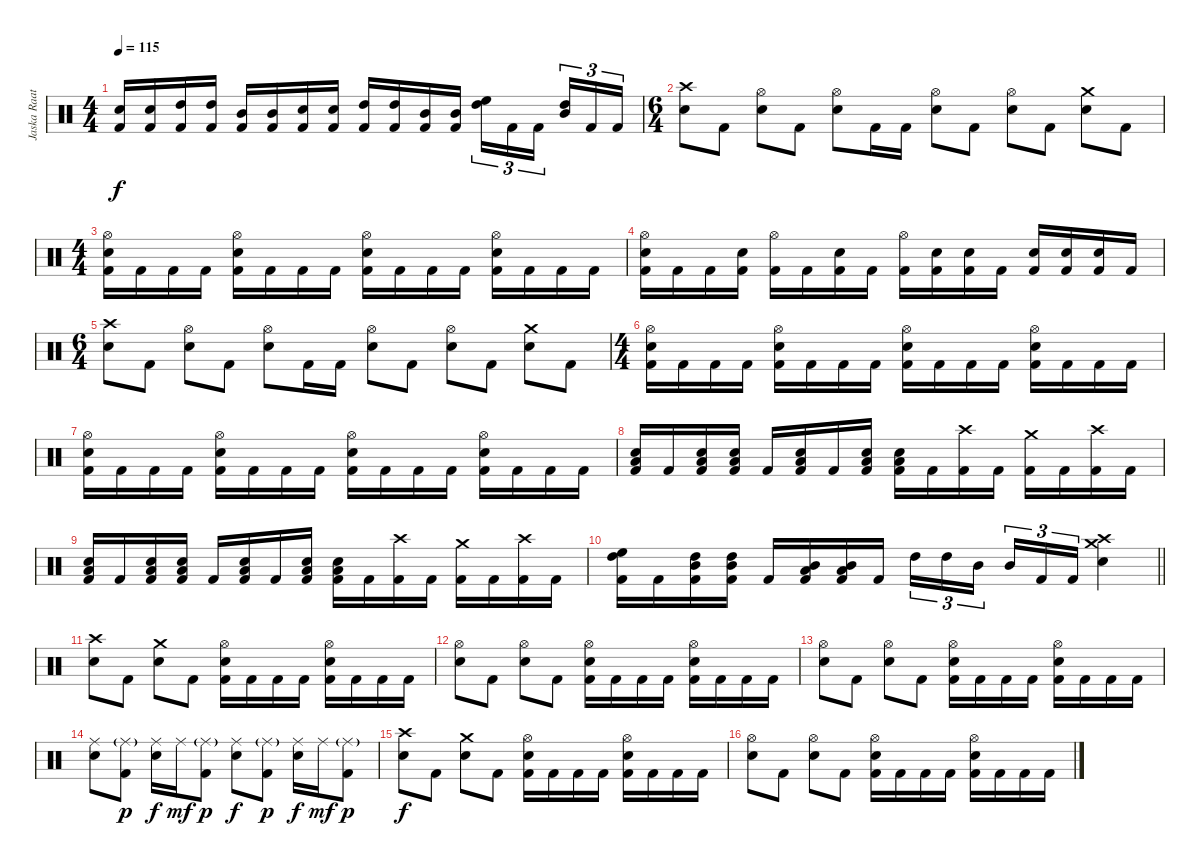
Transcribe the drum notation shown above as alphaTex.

\track ("Jaska Raatikainen" "Jaska Raat") {instrument percussion}
\staff {score}
\articulation defaults
\ts (4 4)
\tempo 115
\clef neutral
\ks c
("Electric Snare (hit)" "Kick (hit) 2").16{dy f} ("Electric Snare (hit)" "Kick (hit) 2").16 ("High Tom (hit)" "Kick (hit) 2").16 ("High Tom (hit)" "Kick (hit) 2").16 ("Mid Tom (hit)" "Kick (hit) 2").16 ("Mid Tom (hit)" "Kick (hit) 2").16 ("Electric Snare (hit)" "Kick (hit) 2").16 ("Electric Snare (hit)" "Kick (hit) 2").16 ("High Tom (hit)" "Kick (hit) 2").16 ("High Tom (hit)" "Kick (hit) 2").16 ("Mid Tom (hit)" "Kick (hit) 2").16 ("Mid Tom (hit)" "Kick (hit) 2").16 ("High Floor Tom (hit)" "High Tom (hit)").16{tu (3 2)} "Kick (hit) 2".16{tu (3 2)} "Kick (hit) 2".16{tu (3 2) beam splitsecondary} ("High Tom (hit)" "Mid Tom (hit)").16{tu (3 2)} "Kick (hit) 2".16{tu (3 2)} "Kick (hit) 2".16{tu (3 2)} |
\ts (6 4)
("Crash high (hit)" "Electric Snare (hit)").8 "Kick (hit) 2".8 ("Hi-Hat (open)" "Electric Snare (hit)").8 "Kick (hit) 2".8 ("Hi-Hat (open)" "Electric Snare (hit)").8 "Kick (hit) 2".16 "Kick (hit) 2".16 ("Hi-Hat (open)" "Electric Snare (hit)").8 "Kick (hit) 2".8 ("Hi-Hat (open)" "Electric Snare (hit)").8 "Kick (hit) 2".8 ("Crash medium (hit)" "Electric Snare (hit)").8 "Kick (hit) 2".8 |
\ts (4 4)
("Hi-Hat (open)" "Electric Snare (hit)" "Kick (hit) 2").16 "Kick (hit) 2".16 "Kick (hit) 2".16 "Kick (hit) 2".16 ("Hi-Hat (open)" "Electric Snare (hit)" "Kick (hit) 2").16 "Kick (hit) 2".16 "Kick (hit) 2".16 "Kick (hit) 2".16 ("Hi-Hat (open)" "Electric Snare (hit)" "Kick (hit) 2").16 "Kick (hit) 2".16 "Kick (hit) 2".16 "Kick (hit) 2".16 ("Hi-Hat (open)" "Electric Snare (hit)" "Kick (hit) 2").16 "Kick (hit) 2".16 "Kick (hit) 2".16 "Kick (hit) 2".16 |
("Hi-Hat (open)" "Electric Snare (hit)" "Kick (hit) 2").16 "Kick (hit) 2".16 "Kick (hit) 2".16 ("Electric Snare (hit)" "Kick (hit) 2").16 ("Hi-Hat (open)" "Kick (hit) 2").16 "Kick (hit) 2".16 ("Electric Snare (hit)" "Kick (hit) 2").16 "Kick (hit) 2".16 ("Hi-Hat (open)" "Kick (hit) 2").16 ("Electric Snare (hit)" "Kick (hit) 2").16 ("Electric Snare (hit)" "Kick (hit) 2").16 "Kick (hit) 2".16 ("Electric Snare (hit)" "Kick (hit) 2").16 ("Electric Snare (hit)" "Kick (hit) 2").16 ("Electric Snare (hit)" "Kick (hit) 2").16 "Kick (hit) 2".16 |
\ts (6 4)
("Crash high (hit)" "Electric Snare (hit)").8 "Kick (hit) 2".8 ("Hi-Hat (open)" "Electric Snare (hit)").8 "Kick (hit) 2".8 ("Hi-Hat (open)" "Electric Snare (hit)").8 "Kick (hit) 2".16 "Kick (hit) 2".16 ("Hi-Hat (open)" "Electric Snare (hit)").8 "Kick (hit) 2".8 ("Hi-Hat (open)" "Electric Snare (hit)").8 "Kick (hit) 2".8 ("Crash medium (hit)" "Electric Snare (hit)").8 "Kick (hit) 2".8 |
\ts (4 4)
("Hi-Hat (open)" "Electric Snare (hit)" "Kick (hit) 2").16 "Kick (hit) 2".16 "Kick (hit) 2".16 "Kick (hit) 2".16 ("Hi-Hat (open)" "Electric Snare (hit)" "Kick (hit) 2").16 "Kick (hit) 2".16 "Kick (hit) 2".16 "Kick (hit) 2".16 ("Hi-Hat (open)" "Electric Snare (hit)" "Kick (hit) 2").16 "Kick (hit) 2".16 "Kick (hit) 2".16 "Kick (hit) 2".16 ("Hi-Hat (open)" "Electric Snare (hit)" "Kick (hit) 2").16 "Kick (hit) 2".16 "Kick (hit) 2".16 "Kick (hit) 2".16 |
("Hi-Hat (open)" "Electric Snare (hit)" "Kick (hit) 2").16 "Kick (hit) 2".16 "Kick (hit) 2".16 "Kick (hit) 2".16 ("Hi-Hat (open)" "Electric Snare (hit)" "Kick (hit) 2").16 "Kick (hit) 2".16 "Kick (hit) 2".16 "Kick (hit) 2".16 ("Hi-Hat (open)" "Electric Snare (hit)" "Kick (hit) 2").16 "Kick (hit) 2".16 "Kick (hit) 2".16 "Kick (hit) 2".16 ("Hi-Hat (open)" "Electric Snare (hit)" "Kick (hit) 2").16 "Kick (hit) 2".16 "Kick (hit) 2".16 "Kick (hit) 2".16 |
("Low Tom (hit)" "Electric Snare (hit)" "Kick (hit) 2").16 "Kick (hit) 2".16 ("Low Tom (hit)" "Electric Snare (hit)" "Kick (hit) 2").16 ("Low Tom (hit)" "Electric Snare (hit)" "Kick (hit) 2").16 "Kick (hit) 2".16 ("Low Tom (hit)" "Electric Snare (hit)" "Kick (hit) 2").16 "Kick (hit) 2".16 ("Low Tom (hit)" "Electric Snare (hit)" "Kick (hit) 2").16 ("Low Tom (hit)" "Electric Snare (hit)" "Kick (hit) 2").16 "Kick (hit) 2".16 ("Crash high (hit)" "Kick (hit) 2").16 "Kick (hit) 2".16 ("Crash medium (hit)" "Kick (hit) 2").16 "Kick (hit) 2".16 ("Crash high (hit)" "Kick (hit) 2").16 "Kick (hit) 2".16 |
("Low Tom (hit)" "Electric Snare (hit)" "Kick (hit) 2").16 "Kick (hit) 2".16 ("Low Tom (hit)" "Electric Snare (hit)" "Kick (hit) 2").16 ("Low Tom (hit)" "Electric Snare (hit)" "Kick (hit) 2").16 "Kick (hit) 2".16 ("Low Tom (hit)" "Electric Snare (hit)" "Kick (hit) 2").16 "Kick (hit) 2".16 ("Low Tom (hit)" "Electric Snare (hit)" "Kick (hit) 2").16 ("Low Tom (hit)" "Electric Snare (hit)" "Kick (hit) 2").16 "Kick (hit) 2".16 ("Crash high (hit)" "Kick (hit) 2").16 "Kick (hit) 2".16 ("Crash medium (hit)" "Kick (hit) 2").16 "Kick (hit) 2".16 ("Crash high (hit)" "Kick (hit) 2").16 "Kick (hit) 2".16 |
\barLineRight lightlight
("High Floor Tom (hit)" "High Tom (hit)" "Kick (hit) 2").16 "Kick (hit) 2".16 ("High Tom (hit)" "Mid Tom (hit)" "Kick (hit) 2").16 ("High Tom (hit)" "Mid Tom (hit)" "Kick (hit) 2").16 "Kick (hit) 2".16 ("Mid Tom (hit)" "Low Tom (hit)" "Kick (hit) 2").16 ("Mid Tom (hit)" "Low Tom (hit)" "Kick (hit) 2").16 "Kick (hit) 2".16 "High Tom (hit)".16{tu (3 2)} "High Tom (hit)".16{tu (3 2)} "Mid Tom (hit)".16{tu (3 2) beam splitsecondary} "Mid Tom (hit)".16{tu (3 2)} "Kick (hit) 2".16{tu (3 2)} "Kick (hit) 2".16{tu (3 2)} ("Crash high (hit)" "Crash medium (hit)" "Electric Snare (hit)").4 |
("Crash high (hit)" "Electric Snare (hit)").8 "Kick (hit) 2".8 ("Crash medium (hit)" "Electric Snare (hit)").8 "Kick (hit) 2".8 ("Hi-Hat (open)" "Electric Snare (hit)" "Kick (hit) 2").16 "Kick (hit) 2".16 "Kick (hit) 2".16 "Kick (hit) 2".16 ("Hi-Hat (open)" "Electric Snare (hit)" "Kick (hit) 2").16 "Kick (hit) 2".16 "Kick (hit) 2".16 "Kick (hit) 2".16 |
("Hi-Hat (open)" "Electric Snare (hit)").8 "Kick (hit) 2".8 ("Hi-Hat (open)" "Electric Snare (hit)").8 "Kick (hit) 2".8 ("Hi-Hat (open)" "Electric Snare (hit)" "Kick (hit) 2").16 "Kick (hit) 2".16 "Kick (hit) 2".16 "Kick (hit) 2".16 ("Hi-Hat (open)" "Electric Snare (hit)" "Kick (hit) 2").16 "Kick (hit) 2".16 "Kick (hit) 2".16 "Kick (hit) 2".16 |
("Hi-Hat (open)" "Electric Snare (hit)").8 "Kick (hit) 2".8 ("Hi-Hat (open)" "Electric Snare (hit)").8 "Kick (hit) 2".8 ("Hi-Hat (open)" "Electric Snare (hit)" "Kick (hit) 2").16 "Kick (hit) 2".16 "Kick (hit) 2".16 "Kick (hit) 2".16 ("Hi-Hat (open)" "Electric Snare (hit)" "Kick (hit) 2").16 "Kick (hit) 2".16 "Kick (hit) 2".16 "Kick (hit) 2".16 |
("Ride (middle)" "Electric Snare (hit)").8 ("Ride (middle)"{g} "Kick (hit) 2").8{dy p} ("Ride (middle)" "Electric Snare (hit)").16{dy f} "Ride (middle)".16{dy mf} ("Ride (middle)"{g} "Kick (hit) 2").8{dy p} ("Ride (middle)" "Electric Snare (hit)").8{dy f} ("Ride (middle)"{g} "Kick (hit) 2").8{dy p} ("Ride (middle)" "Electric Snare (hit)").16{dy f} "Ride (middle)".16{dy mf} ("Ride (middle)"{g} "Kick (hit) 2").8{dy p} |
("Crash high (hit)" "Electric Snare (hit)").8{dy f} "Kick (hit) 2".8 ("Crash medium (hit)" "Electric Snare (hit)").8 "Kick (hit) 2".8 ("Hi-Hat (open)" "Electric Snare (hit)" "Kick (hit) 2").16 "Kick (hit) 2".16 "Kick (hit) 2".16 "Kick (hit) 2".16 ("Hi-Hat (open)" "Electric Snare (hit)" "Kick (hit) 2").16 "Kick (hit) 2".16 "Kick (hit) 2".16 "Kick (hit) 2".16 |
("Hi-Hat (open)" "Electric Snare (hit)").8 "Kick (hit) 2".8 ("Hi-Hat (open)" "Electric Snare (hit)").8 "Kick (hit) 2".8 ("Hi-Hat (open)" "Electric Snare (hit)" "Kick (hit) 2").16 "Kick (hit) 2".16 "Kick (hit) 2".16 "Kick (hit) 2".16 ("Hi-Hat (open)" "Electric Snare (hit)" "Kick (hit) 2").16 "Kick (hit) 2".16 "Kick (hit) 2".16 "Kick (hit) 2".16
